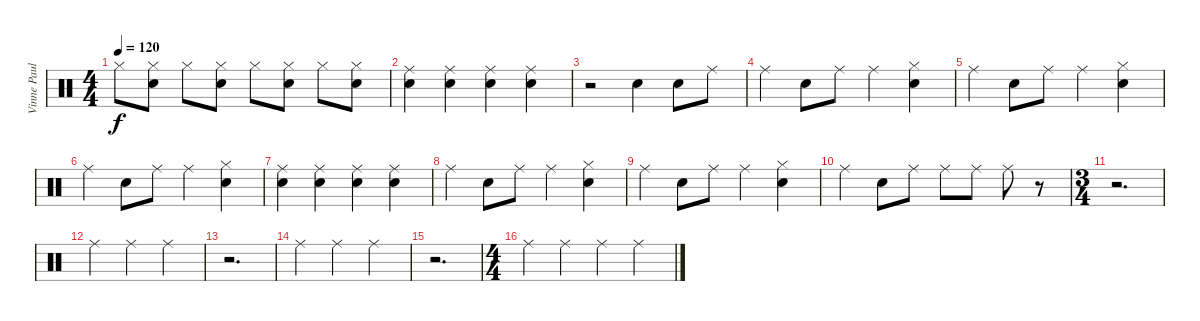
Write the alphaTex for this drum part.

\track ("Vinne Paul cymbals and tom" "Vinne Paul") {instrument percussion}
\staff {score}
\articulation defaults
\ts (4 4)
\tempo 120
\clef neutral
\ks c "Hi-Hat (closed)".8{dy f}
("Hi-Hat (closed)" "Electric Snare (hit)").8 "Hi-Hat (closed)".8 ("Hi-Hat (closed)" "Electric Snare (hit)").8 "Hi-Hat (closed)".8 ("Hi-Hat (closed)" "Electric Snare (hit)").8 "Hi-Hat (closed)".8 ("Hi-Hat (closed)" "Electric Snare (hit)").8 |
("Ride (middle)" "Electric Snare (hit)").4 ("Ride (middle)" "Electric Snare (hit)").4 ("Ride (middle)" "Electric Snare (hit)").4 ("Ride (middle)" "Electric Snare (hit)").4 |
r.2 "Electric Snare (hit)".4 "Electric Snare (hit)".8 "Ride (middle)".8 |
"Ride (middle)".4 "Electric Snare (hit)".8 "Ride (middle)".8 "Ride (middle)".4 ("Hi-Hat (closed)" "Electric Snare (hit)").4 |
"Ride (middle)".4 "Electric Snare (hit)".8 "Ride (middle)".8 "Ride (middle)".4 ("Hi-Hat (closed)" "Electric Snare (hit)").4 |
"Ride (middle)".4 "Electric Snare (hit)".8 "Ride (middle)".8 "Ride (middle)".4 ("Hi-Hat (closed)" "Electric Snare (hit)").4 |
("Ride (middle)" "Electric Snare (hit)").4 ("Ride (middle)" "Electric Snare (hit)").4 ("Ride (middle)" "Electric Snare (hit)").4 ("Ride (middle)" "Electric Snare (hit)").4 |
"Ride (middle)".4 "Electric Snare (hit)".8 "Ride (middle)".8 "Ride (middle)".4 ("Hi-Hat (closed)" "Electric Snare (hit)").4 |
"Ride (middle)".4 "Electric Snare (hit)".8 "Ride (middle)".8 "Ride (middle)".4 ("Hi-Hat (closed)" "Electric Snare (hit)").4 |
"Ride (middle)".4 "Electric Snare (hit)".8 "Ride (middle)".8 "Ride (middle)".8 "Ride (middle)".8 "Ride (middle)".8 r.8 |
\ts (3 4)
r.2{d} |
"Ride (middle)".4 "Ride (middle)".4 "Ride (middle)".4 |
r.2{d} |
"Ride (middle)".4 "Ride (middle)".4 "Ride (middle)".4 |
r.2{d} |
\ts (4 4)
"Ride (middle)".4 "Ride (middle)".4 "Ride (middle)".4 "Ride (middle)".4
